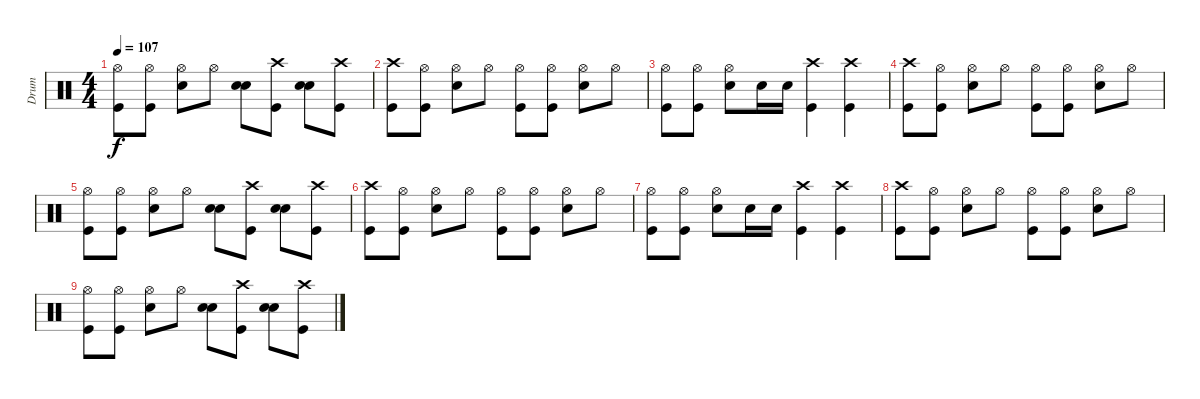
\track ("Drum" "Drum") {instrument percussion}
\staff {score}
\articulation defaults
\ts (4 4)
\tempo 107
\clef neutral
\ks c
("Hi-Hat (open)" "Kick (hit)").8{dy f} ("Hi-Hat (open)" "Kick (hit)").8 ("Hi-Hat (open)" "Snare (hit) 2").8 "Hi-Hat (open)".8 ("Snare (hit) 2" "Snare (hit) 2").8 ("Crash high (hit)" "Kick (hit)").8 ("Snare (hit) 2" "Snare (hit) 2").8 ("Crash high (hit)" "Kick (hit)").8 |
("Crash high (hit)" "Kick (hit)").8 ("Hi-Hat (open)" "Kick (hit)").8 ("Hi-Hat (open)" "Snare (hit) 2").8 "Hi-Hat (open)".8 ("Hi-Hat (open)" "Kick (hit)").8 ("Hi-Hat (open)" "Kick (hit)").8 ("Hi-Hat (open)" "Snare (hit) 2").8 "Hi-Hat (open)".8 |
("Hi-Hat (open)" "Kick (hit)").8 ("Hi-Hat (open)" "Kick (hit)").8 ("Hi-Hat (open)" "Snare (hit) 2").8 "Snare (hit) 2".16 "Snare (hit) 2".16 ("Crash high (hit)" "Kick (hit)").4 ("Crash high (hit)" "Kick (hit)").4 |
("Crash high (hit)" "Kick (hit)").8 ("Hi-Hat (open)" "Kick (hit)").8 ("Hi-Hat (open)" "Snare (hit) 2").8 "Hi-Hat (open)".8 ("Hi-Hat (open)" "Kick (hit)").8 ("Hi-Hat (open)" "Kick (hit)").8 ("Hi-Hat (open)" "Snare (hit) 2").8 "Hi-Hat (open)".8 |
("Hi-Hat (open)" "Kick (hit)").8 ("Hi-Hat (open)" "Kick (hit)").8 ("Hi-Hat (open)" "Snare (hit) 2").8 "Hi-Hat (open)".8 ("Snare (hit) 2" "Snare (hit) 2").8 ("Crash high (hit)" "Kick (hit)").8 ("Snare (hit) 2" "Snare (hit) 2").8 ("Crash high (hit)" "Kick (hit)").8 |
("Crash high (hit)" "Kick (hit)").8 ("Hi-Hat (open)" "Kick (hit)").8 ("Hi-Hat (open)" "Snare (hit) 2").8 "Hi-Hat (open)".8 ("Hi-Hat (open)" "Kick (hit)").8 ("Hi-Hat (open)" "Kick (hit)").8 ("Hi-Hat (open)" "Snare (hit) 2").8 "Hi-Hat (open)".8 |
("Hi-Hat (open)" "Kick (hit)").8 ("Hi-Hat (open)" "Kick (hit)").8 ("Hi-Hat (open)" "Snare (hit) 2").8 "Snare (hit) 2".16 "Snare (hit) 2".16 ("Crash high (hit)" "Kick (hit)").4 ("Crash high (hit)" "Kick (hit)").4 |
("Crash high (hit)" "Kick (hit)").8 ("Hi-Hat (open)" "Kick (hit)").8 ("Hi-Hat (open)" "Snare (hit) 2").8 "Hi-Hat (open)".8 ("Hi-Hat (open)" "Kick (hit)").8 ("Hi-Hat (open)" "Kick (hit)").8 ("Hi-Hat (open)" "Snare (hit) 2").8 "Hi-Hat (open)".8 |
("Hi-Hat (open)" "Kick (hit)").8 ("Hi-Hat (open)" "Kick (hit)").8 ("Hi-Hat (open)" "Snare (hit) 2").8 "Hi-Hat (open)".8 ("Snare (hit) 2" "Snare (hit) 2").8 ("Crash high (hit)" "Kick (hit)").8 ("Snare (hit) 2" "Snare (hit) 2").8 ("Crash high (hit)" "Kick (hit)").8
